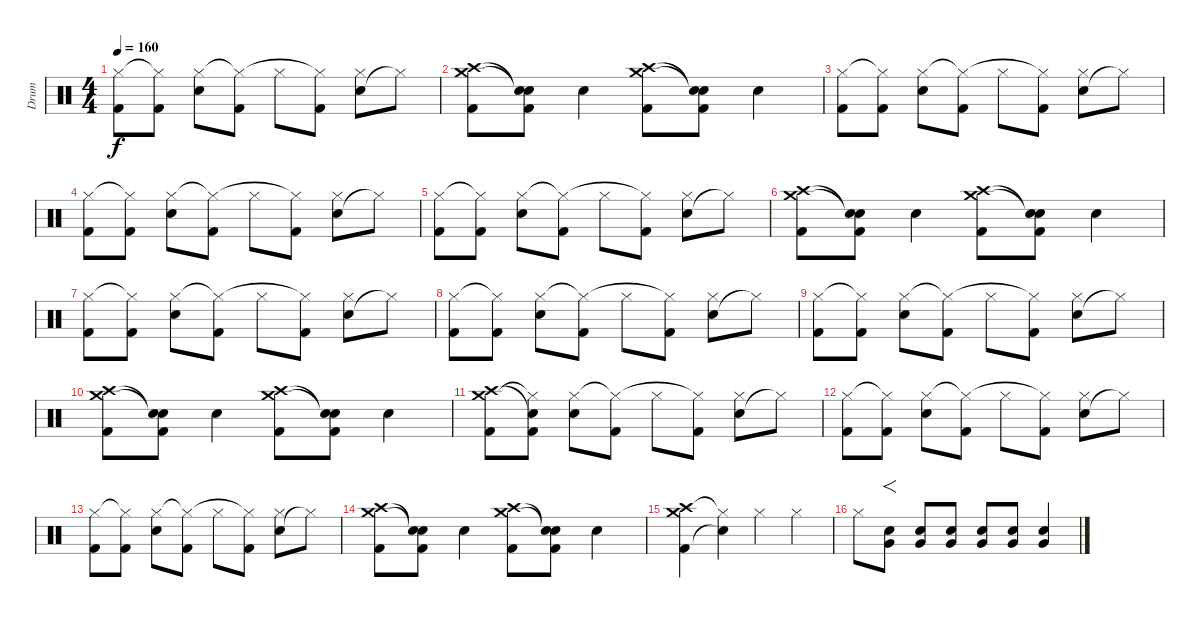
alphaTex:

\track ("Drum" "Drum") {instrument percussion}
\staff {score}
\articulation defaults
\ts (4 4)
\tempo 160
\clef neutral
\ks c
("Kick (hit) 2" "Hi-Hat (closed)").8{dy f} ("Kick (hit) 2" "Hi-Hat (closed)"{t}).8 ("Electric Snare (hit)" "Hi-Hat (closed)").8 ("Kick (hit) 2" "Hi-Hat (closed)"{t}).8 "Hi-Hat (closed)".8 ("Kick (hit) 2" "Hi-Hat (closed)"{t}).8 ("Electric Snare (hit)" "Hi-Hat (closed)").8 "Hi-Hat (closed)"{t}.8 |
("Kick (hit) 2" "Crash high (hit)" "Crash medium (hit)").8 ("Kick (hit) 2" "Electric Snare (hit)"{t} "Snare (hit)"{t}).8 "Electric Snare (hit)".4 ("Kick (hit) 2" "Crash high (hit)" "Crash medium (hit)").8 ("Kick (hit) 2" "Snare (hit)"{t} "Snare (hit)"{t}).8 "Electric Snare (hit)".4 |
("Kick (hit) 2" "Hi-Hat (closed)").8 ("Kick (hit) 2" "Hi-Hat (closed)"{t}).8 ("Electric Snare (hit)" "Hi-Hat (closed)").8 ("Kick (hit) 2" "Hi-Hat (closed)"{t}).8 "Hi-Hat (closed)".8 ("Kick (hit) 2" "Hi-Hat (closed)"{t}).8 ("Electric Snare (hit)" "Hi-Hat (closed)").8 "Hi-Hat (closed)"{t}.8 |
("Kick (hit) 2" "Hi-Hat (closed)").8 ("Kick (hit) 2" "Hi-Hat (closed)"{t}).8 ("Electric Snare (hit)" "Hi-Hat (closed)").8 ("Kick (hit) 2" "Hi-Hat (closed)"{t}).8 "Hi-Hat (closed)".8 ("Kick (hit) 2" "Hi-Hat (closed)"{t}).8 ("Electric Snare (hit)" "Hi-Hat (closed)").8 "Hi-Hat (closed)"{t}.8 |
("Kick (hit) 2" "Hi-Hat (closed)").8 ("Kick (hit) 2" "Hi-Hat (closed)"{t}).8 ("Electric Snare (hit)" "Hi-Hat (closed)").8 ("Kick (hit) 2" "Hi-Hat (closed)"{t}).8 "Hi-Hat (closed)".8 ("Kick (hit) 2" "Hi-Hat (closed)"{t}).8 ("Electric Snare (hit)" "Hi-Hat (closed)").8 "Hi-Hat (closed)"{t}.8 |
("Kick (hit) 2" "Crash high (hit)" "Crash medium (hit)").8 ("Kick (hit) 2" "Electric Snare (hit)"{t} "Snare (hit)"{t}).8 "Electric Snare (hit)".4 ("Kick (hit) 2" "Crash high (hit)" "Crash medium (hit)").8 ("Kick (hit) 2" "Snare (hit)"{t} "Snare (hit)"{t}).8 "Electric Snare (hit)".4 |
\section ("" "")
("Kick (hit) 2" "Hi-Hat (closed)").8 ("Kick (hit) 2" "Hi-Hat (closed)"{t}).8 ("Electric Snare (hit)" "Hi-Hat (closed)").8 ("Kick (hit) 2" "Hi-Hat (closed)"{t}).8 "Hi-Hat (closed)".8 ("Kick (hit) 2" "Hi-Hat (closed)"{t}).8 ("Electric Snare (hit)" "Hi-Hat (closed)").8 "Hi-Hat (closed)"{t}.8 |
("Kick (hit) 2" "Hi-Hat (closed)").8 ("Kick (hit) 2" "Hi-Hat (closed)"{t}).8 ("Electric Snare (hit)" "Hi-Hat (closed)").8 ("Kick (hit) 2" "Hi-Hat (closed)"{t}).8 "Hi-Hat (closed)".8 ("Kick (hit) 2" "Hi-Hat (closed)"{t}).8 ("Electric Snare (hit)" "Hi-Hat (closed)").8 "Hi-Hat (closed)"{t}.8 |
("Kick (hit) 2" "Hi-Hat (closed)").8 ("Kick (hit) 2" "Hi-Hat (closed)"{t}).8 ("Electric Snare (hit)" "Hi-Hat (closed)").8 ("Kick (hit) 2" "Hi-Hat (closed)"{t}).8 "Hi-Hat (closed)".8 ("Kick (hit) 2" "Hi-Hat (closed)"{t}).8 ("Electric Snare (hit)" "Hi-Hat (closed)").8 "Hi-Hat (closed)"{t}.8 |
("Kick (hit) 2" "Crash high (hit)" "Crash medium (hit)").8 ("Kick (hit) 2" "Electric Snare (hit)"{t} "Snare (hit)"{t}).8 "Electric Snare (hit)".4 ("Kick (hit) 2" "Crash high (hit)" "Crash medium (hit)").8 ("Kick (hit) 2" "Snare (hit)"{t} "Snare (hit)"{t}).8 "Electric Snare (hit)".4 |
("Kick (hit) 2" "Crash high (hit)" "Crash medium (hit)").8 ("Kick (hit) 2" "Electric Snare (hit)"{t} "Hi-Hat (closed)"{t}).8 ("Electric Snare (hit)" "Hi-Hat (closed)").8 ("Kick (hit) 2" "Hi-Hat (closed)"{t}).8 "Hi-Hat (closed)".8 ("Kick (hit) 2" "Hi-Hat (closed)"{t}).8 ("Electric Snare (hit)" "Hi-Hat (closed)").8 "Hi-Hat (closed)"{t}.8 |
("Kick (hit) 2" "Hi-Hat (closed)").8 ("Kick (hit) 2" "Hi-Hat (closed)"{t}).8 ("Electric Snare (hit)" "Hi-Hat (closed)").8 ("Kick (hit) 2" "Hi-Hat (closed)"{t}).8 "Hi-Hat (closed)".8 ("Kick (hit) 2" "Hi-Hat (closed)"{t}).8 ("Electric Snare (hit)" "Hi-Hat (closed)").8 "Hi-Hat (closed)"{t}.8 |
("Kick (hit) 2" "Hi-Hat (closed)").8 ("Kick (hit) 2" "Hi-Hat (closed)"{t}).8 ("Electric Snare (hit)" "Hi-Hat (closed)").8 ("Kick (hit) 2" "Hi-Hat (closed)"{t}).8 "Hi-Hat (closed)".8 ("Kick (hit) 2" "Hi-Hat (closed)"{t}).8 ("Electric Snare (hit)" "Hi-Hat (closed)").8 "Hi-Hat (closed)"{t}.8 |
("Kick (hit) 2" "Crash high (hit)" "Crash medium (hit)").8 ("Kick (hit) 2" "Electric Snare (hit)"{t} "Snare (hit)"{t}).8 "Electric Snare (hit)".4 ("Kick (hit) 2" "Crash high (hit)" "Crash medium (hit)").8 ("Kick (hit) 2" "Snare (hit)"{t} "Snare (hit)"{t}).8 "Electric Snare (hit)".4 |
("Kick (hit) 2" "Crash high (hit)" "Crash medium (hit)").4 ("Snare (hit)"{t} "Hi-Hat (closed)"{t}).4 "Hi-Hat (closed)".4 "Hi-Hat (closed)".4 |
"Hi-Hat (closed)".8 ("Electric Snare (hit)" "Very Low Tom (hit)").8{f} ("Electric Snare (hit)" "Very Low Tom (hit)").8 ("Electric Snare (hit)" "Very Low Tom (hit)").8 ("Electric Snare (hit)" "Very Low Tom (hit)").8 ("Electric Snare (hit)" "Very Low Tom (hit)").8 ("Electric Snare (hit)" "Very Low Tom (hit)").4
